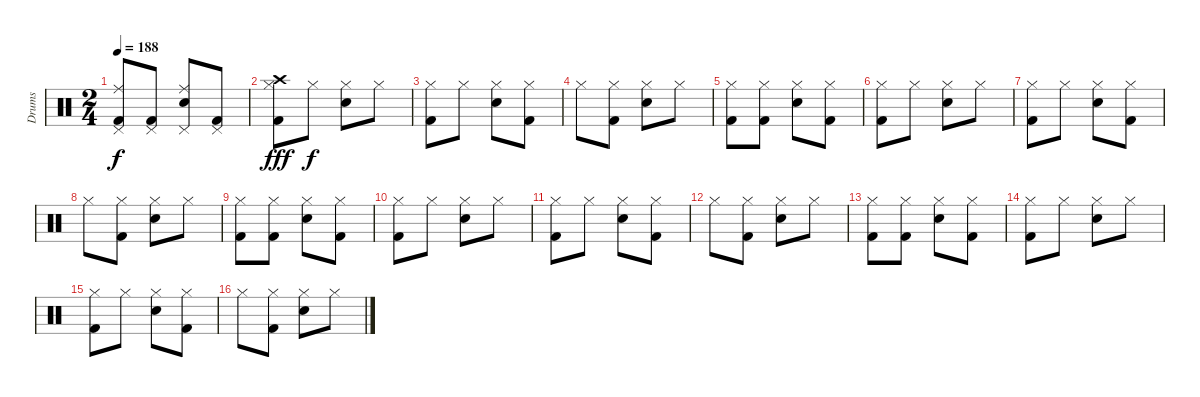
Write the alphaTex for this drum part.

\track ("Drums" "Drums") {instrument percussion}
\staff {score}
\articulation defaults
\ts (2 4)
\tempo 188
\clef neutral
\ks c
("Ride (middle)" "Pedal Hi-Hat (hit)" "Kick (hit) 2").8{dy f} ("Pedal Hi-Hat (hit)" "Kick (hit) 2").8 ("Ride (middle)" "Pedal Hi-Hat (hit)" "Snare (hit) 2").8 ("Pedal Hi-Hat (hit)" "Kick (hit) 2").8 |
("Crash high (hit)" "Hi-Hat (closed)" "Kick (hit) 2").8{dy fff} "Hi-Hat (closed)".8{dy f} ("Hi-Hat (closed)" "Snare (hit) 2").8 "Hi-Hat (closed)".8 |
("Hi-Hat (closed)" "Kick (hit) 2").8 "Hi-Hat (closed)".8 ("Hi-Hat (closed)" "Snare (hit) 2").8 ("Hi-Hat (closed)" "Kick (hit) 2").8 |
"Hi-Hat (closed)".8 ("Hi-Hat (closed)" "Kick (hit) 2").8 ("Hi-Hat (closed)" "Snare (hit) 2").8 "Hi-Hat (closed)".8 |
("Hi-Hat (closed)" "Kick (hit) 2").8 ("Hi-Hat (closed)" "Kick (hit) 2").8 ("Hi-Hat (closed)" "Snare (hit) 2").8 ("Hi-Hat (closed)" "Kick (hit) 2").8 |
("Hi-Hat (closed)" "Kick (hit) 2").8 "Hi-Hat (closed)".8 ("Hi-Hat (closed)" "Snare (hit) 2").8 "Hi-Hat (closed)".8 |
("Hi-Hat (closed)" "Kick (hit) 2").8 "Hi-Hat (closed)".8 ("Hi-Hat (closed)" "Snare (hit) 2").8 ("Hi-Hat (closed)" "Kick (hit) 2").8 |
"Hi-Hat (closed)".8 ("Hi-Hat (closed)" "Kick (hit) 2").8 ("Hi-Hat (closed)" "Snare (hit) 2").8 "Hi-Hat (closed)".8 |
("Hi-Hat (closed)" "Kick (hit) 2").8 ("Hi-Hat (closed)" "Kick (hit) 2").8 ("Hi-Hat (closed)" "Snare (hit) 2").8 ("Hi-Hat (closed)" "Kick (hit) 2").8 |
("Hi-Hat (closed)" "Kick (hit) 2").8 "Hi-Hat (closed)".8 ("Hi-Hat (closed)" "Snare (hit) 2").8 "Hi-Hat (closed)".8 |
("Hi-Hat (closed)" "Kick (hit) 2").8 "Hi-Hat (closed)".8 ("Hi-Hat (closed)" "Snare (hit) 2").8 ("Hi-Hat (closed)" "Kick (hit) 2").8 |
"Hi-Hat (closed)".8 ("Hi-Hat (closed)" "Kick (hit) 2").8 ("Hi-Hat (closed)" "Snare (hit) 2").8 "Hi-Hat (closed)".8 |
("Hi-Hat (closed)" "Kick (hit) 2").8 ("Hi-Hat (closed)" "Kick (hit) 2").8 ("Hi-Hat (closed)" "Snare (hit) 2").8 ("Hi-Hat (closed)" "Kick (hit) 2").8 |
("Hi-Hat (closed)" "Kick (hit) 2").8 "Hi-Hat (closed)".8 ("Hi-Hat (closed)" "Snare (hit) 2").8 "Hi-Hat (closed)".8 |
("Hi-Hat (closed)" "Kick (hit) 2").8 "Hi-Hat (closed)".8 ("Hi-Hat (closed)" "Snare (hit) 2").8 ("Hi-Hat (closed)" "Kick (hit) 2").8 |
"Hi-Hat (closed)".8 ("Hi-Hat (closed)" "Kick (hit) 2").8 ("Hi-Hat (closed)" "Snare (hit) 2").8 "Hi-Hat (closed)".8
